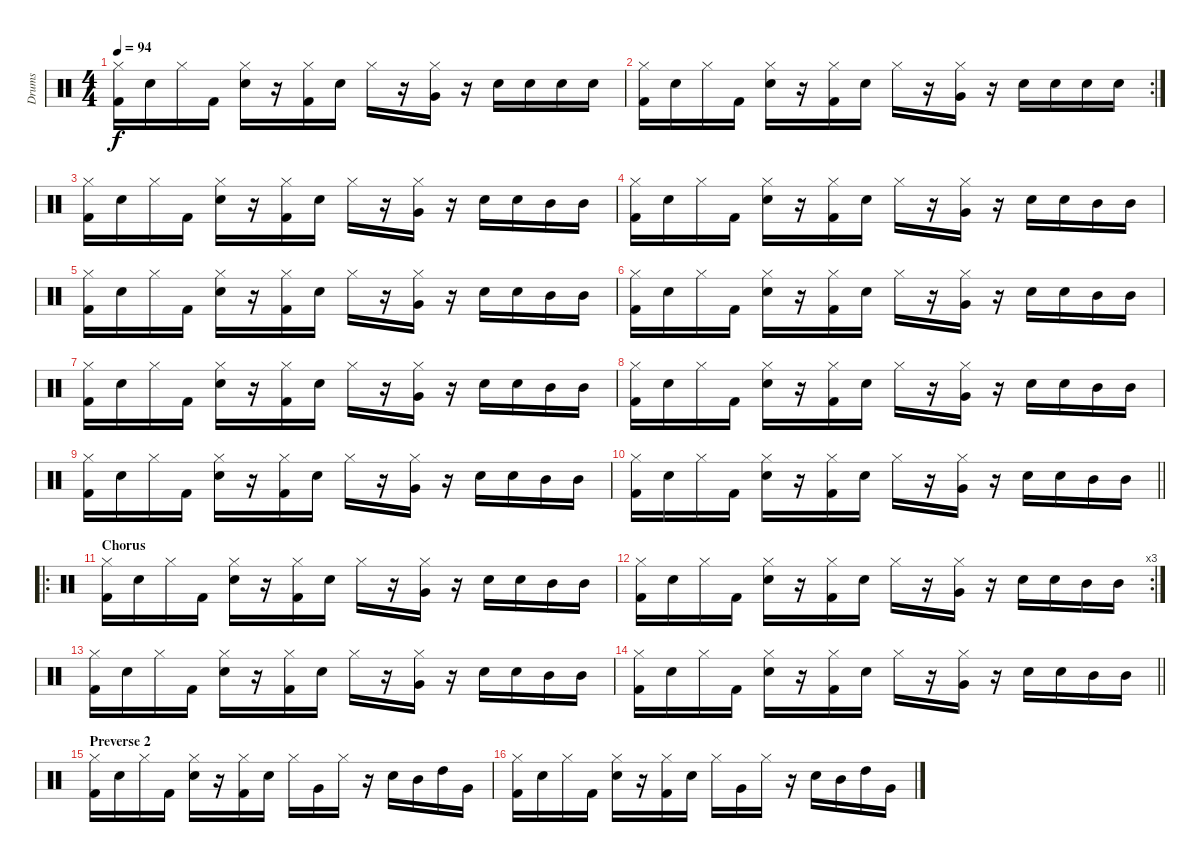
\track ("Drums" "Drums") {instrument percussion}
\staff {score}
\articulation defaults
\ts (4 4)
\tempo 94
\clef neutral
\ks c
("Hi-Hat (closed)" "Kick (hit) 2").16{dy f} "Snare (hit) 2".16 "Hi-Hat (closed)".16 "Kick (hit) 2".16 ("Hi-Hat (closed)" "Snare (hit) 2").16 r.16 ("Hi-Hat (closed)" "Kick (hit) 2").16 "Snare (hit) 2".16 "Hi-Hat (closed)".16 r.16 ("Hi-Hat (closed)" "Very Low Tom (hit)").16 r.16 "Snare (hit) 2".16 "Snare (hit) 2".16 "Snare (hit) 2".16 "Snare (hit) 2".16 |
\rc 2
("Hi-Hat (closed)" "Kick (hit) 2").16 "Snare (hit) 2".16 "Hi-Hat (closed)".16 "Kick (hit) 2".16 ("Hi-Hat (closed)" "Snare (hit) 2").16 r.16 ("Hi-Hat (closed)" "Kick (hit) 2").16 "Snare (hit) 2".16 "Hi-Hat (closed)".16 r.16 ("Hi-Hat (closed)" "Very Low Tom (hit)").16 r.16 "Snare (hit) 2".16 "Snare (hit) 2".16 "Snare (hit) 2".16 "Snare (hit) 2".16 |
("Hi-Hat (closed)" "Kick (hit) 2").16 "Snare (hit) 2".16 "Hi-Hat (closed)".16 "Kick (hit) 2".16 ("Hi-Hat (closed)" "Snare (hit) 2").16 r.16 ("Hi-Hat (closed)" "Kick (hit) 2").16 "Snare (hit) 2".16 "Hi-Hat (closed)".16 r.16 ("Hi-Hat (closed)" "Very Low Tom (hit)").16 r.16 "Snare (hit) 2".16 "Snare (hit) 2".16 "Mid Tom (hit)".16 "Mid Tom (hit)".16 |
("Hi-Hat (closed)" "Kick (hit) 2").16 "Snare (hit) 2".16 "Hi-Hat (closed)".16 "Kick (hit) 2".16 ("Hi-Hat (closed)" "Snare (hit) 2").16 r.16 ("Hi-Hat (closed)" "Kick (hit) 2").16 "Snare (hit) 2".16 "Hi-Hat (closed)".16 r.16 ("Hi-Hat (closed)" "Very Low Tom (hit)").16 r.16 "Snare (hit) 2".16 "Snare (hit) 2".16 "Mid Tom (hit)".16 "Mid Tom (hit)".16 |
("Hi-Hat (closed)" "Kick (hit) 2").16 "Snare (hit) 2".16 "Hi-Hat (closed)".16 "Kick (hit) 2".16 ("Hi-Hat (closed)" "Snare (hit) 2").16 r.16 ("Hi-Hat (closed)" "Kick (hit) 2").16 "Snare (hit) 2".16 "Hi-Hat (closed)".16 r.16 ("Hi-Hat (closed)" "Very Low Tom (hit)").16 r.16 "Snare (hit) 2".16 "Snare (hit) 2".16 "Mid Tom (hit)".16 "Mid Tom (hit)".16 |
("Hi-Hat (closed)" "Kick (hit) 2").16 "Snare (hit) 2".16 "Hi-Hat (closed)".16 "Kick (hit) 2".16 ("Hi-Hat (closed)" "Snare (hit) 2").16 r.16 ("Hi-Hat (closed)" "Kick (hit) 2").16 "Snare (hit) 2".16 "Hi-Hat (closed)".16 r.16 ("Hi-Hat (closed)" "Very Low Tom (hit)").16 r.16 "Snare (hit) 2".16 "Snare (hit) 2".16 "Mid Tom (hit)".16 "Mid Tom (hit)".16 |
("Hi-Hat (closed)" "Kick (hit) 2").16 "Snare (hit) 2".16 "Hi-Hat (closed)".16 "Kick (hit) 2".16 ("Hi-Hat (closed)" "Snare (hit) 2").16 r.16 ("Hi-Hat (closed)" "Kick (hit) 2").16 "Snare (hit) 2".16 "Hi-Hat (closed)".16 r.16 ("Hi-Hat (closed)" "Very Low Tom (hit)").16 r.16 "Snare (hit) 2".16 "Snare (hit) 2".16 "Mid Tom (hit)".16 "Mid Tom (hit)".16 |
("Hi-Hat (closed)" "Kick (hit) 2").16 "Snare (hit) 2".16 "Hi-Hat (closed)".16 "Kick (hit) 2".16 ("Hi-Hat (closed)" "Snare (hit) 2").16 r.16 ("Hi-Hat (closed)" "Kick (hit) 2").16 "Snare (hit) 2".16 "Hi-Hat (closed)".16 r.16 ("Hi-Hat (closed)" "Very Low Tom (hit)").16 r.16 "Snare (hit) 2".16 "Snare (hit) 2".16 "Mid Tom (hit)".16 "Mid Tom (hit)".16 |
("Hi-Hat (closed)" "Kick (hit) 2").16 "Snare (hit) 2".16 "Hi-Hat (closed)".16 "Kick (hit) 2".16 ("Hi-Hat (closed)" "Snare (hit) 2").16 r.16 ("Hi-Hat (closed)" "Kick (hit) 2").16 "Snare (hit) 2".16 "Hi-Hat (closed)".16 r.16 ("Hi-Hat (closed)" "Very Low Tom (hit)").16 r.16 "Snare (hit) 2".16 "Snare (hit) 2".16 "Mid Tom (hit)".16 "Mid Tom (hit)".16 |
\barLineRight lightlight
("Hi-Hat (closed)" "Kick (hit) 2").16 "Snare (hit) 2".16 "Hi-Hat (closed)".16 "Kick (hit) 2".16 ("Hi-Hat (closed)" "Snare (hit) 2").16 r.16 ("Hi-Hat (closed)" "Kick (hit) 2").16 "Snare (hit) 2".16 "Hi-Hat (closed)".16 r.16 ("Hi-Hat (closed)" "Very Low Tom (hit)").16 r.16 "Snare (hit) 2".16 "Snare (hit) 2".16 "Mid Tom (hit)".16 "Mid Tom (hit)".16 |
\ro
\section ("" "Chorus")
("Hi-Hat (closed)" "Kick (hit) 2").16 "Snare (hit) 2".16 "Hi-Hat (closed)".16 "Kick (hit) 2".16 ("Hi-Hat (closed)" "Snare (hit) 2").16 r.16 ("Hi-Hat (closed)" "Kick (hit) 2").16 "Snare (hit) 2".16 "Hi-Hat (closed)".16 r.16 ("Hi-Hat (closed)" "Very Low Tom (hit)").16 r.16 "Snare (hit) 2".16 "Snare (hit) 2".16 "Mid Tom (hit)".16 "Mid Tom (hit)".16 |
\rc 3
("Hi-Hat (closed)" "Kick (hit) 2").16 "Snare (hit) 2".16 "Hi-Hat (closed)".16 "Kick (hit) 2".16 ("Hi-Hat (closed)" "Snare (hit) 2").16 r.16 ("Hi-Hat (closed)" "Kick (hit) 2").16 "Snare (hit) 2".16 "Hi-Hat (closed)".16 r.16 ("Hi-Hat (closed)" "Very Low Tom (hit)").16 r.16 "Snare (hit) 2".16 "Snare (hit) 2".16 "Mid Tom (hit)".16 "Mid Tom (hit)".16 |
("Hi-Hat (closed)" "Kick (hit) 2").16 "Snare (hit) 2".16 "Hi-Hat (closed)".16 "Kick (hit) 2".16 ("Hi-Hat (closed)" "Snare (hit) 2").16 r.16 ("Hi-Hat (closed)" "Kick (hit) 2").16 "Snare (hit) 2".16 "Hi-Hat (closed)".16 r.16 ("Hi-Hat (closed)" "Very Low Tom (hit)").16 r.16 "Snare (hit) 2".16 "Snare (hit) 2".16 "Mid Tom (hit)".16 "Mid Tom (hit)".16 |
\barLineRight lightlight
("Hi-Hat (closed)" "Kick (hit) 2").16 "Snare (hit) 2".16 "Hi-Hat (closed)".16 "Kick (hit) 2".16 ("Hi-Hat (closed)" "Snare (hit) 2").16 r.16 ("Hi-Hat (closed)" "Kick (hit) 2").16 "Snare (hit) 2".16 "Hi-Hat (closed)".16 r.16 ("Hi-Hat (closed)" "Very Low Tom (hit)").16 r.16 "Snare (hit) 2".16 "Snare (hit) 2".16 "Mid Tom (hit)".16 "Mid Tom (hit)".16 |
\section ("" "Preverse 2")
("Hi-Hat (closed)" "Kick (hit) 2").16 "Snare (hit) 2".16 "Hi-Hat (closed)".16 "Kick (hit) 2".16 ("Hi-Hat (closed)" "Snare (hit) 2").16 r.16 ("Hi-Hat (closed)" "Kick (hit) 2").16 "Snare (hit) 2".16 "Hi-Hat (closed)".16 "Very Low Tom (hit)".16 "Hi-Hat (closed)".16 r.16 "Snare (hit) 2".16 "Mid Tom (hit)".16 "High Tom (hit)".16 "Very Low Tom (hit)".16 |
("Hi-Hat (closed)" "Kick (hit) 2").16 "Snare (hit) 2".16 "Hi-Hat (closed)".16 "Kick (hit) 2".16 ("Hi-Hat (closed)" "Snare (hit) 2").16 r.16 ("Hi-Hat (closed)" "Kick (hit) 2").16 "Snare (hit) 2".16 "Hi-Hat (closed)".16 "Very Low Tom (hit)".16 "Hi-Hat (closed)".16 r.16 "Snare (hit) 2".16 "Mid Tom (hit)".16 "High Tom (hit)".16 "Very Low Tom (hit)".16
